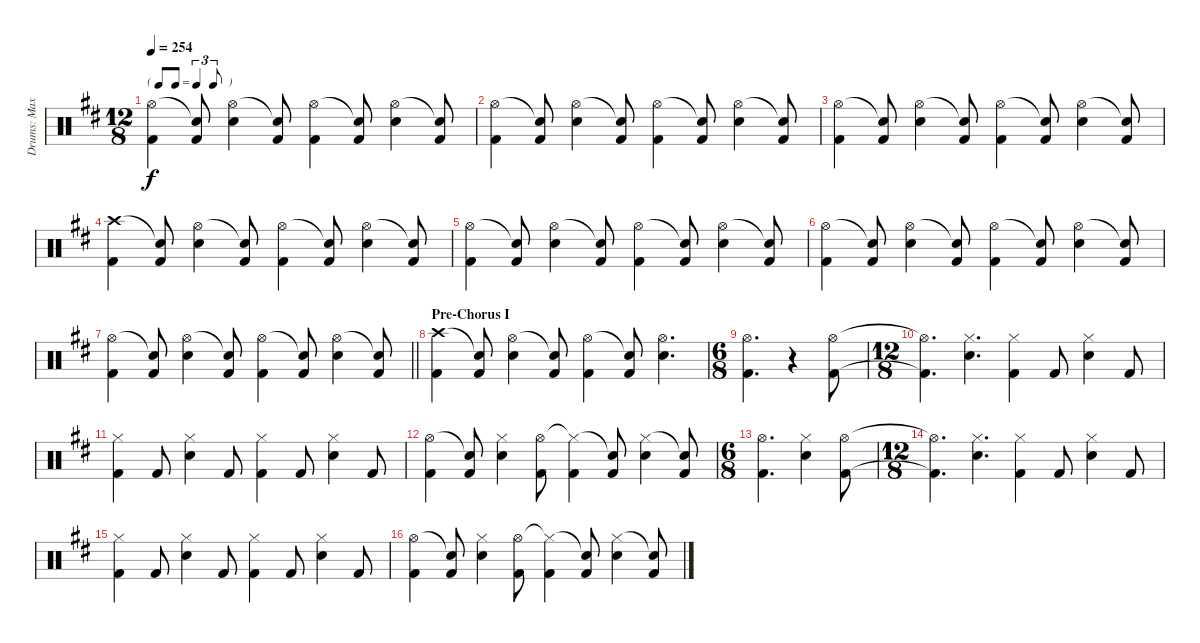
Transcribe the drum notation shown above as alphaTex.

\track ("Drums: Max" "Drums: Max") {instrument percussion}
\staff {score}
\articulation defaults
\ts (12 8)
\tf triplet8th
\tempo 254
\clef neutral
\ks d
("Hi-Hat (open)" "Kick (hit) 2").4{dy f} ("Snare (hit)"{t} "Kick (hit) 2").8 ("Hi-Hat (open)" "Electric Snare (hit)").4 ("Snare (hit)"{t} "Kick (hit) 2").8 ("Hi-Hat (open)" "Kick (hit) 2").4 ("Snare (hit)"{t} "Kick (hit) 2").8 ("Hi-Hat (open)" "Electric Snare (hit)").4 ("Snare (hit)"{t} "Kick (hit) 2").8 |
("Hi-Hat (open)" "Kick (hit) 2").4 ("Snare (hit)"{t} "Kick (hit) 2").8 ("Hi-Hat (open)" "Electric Snare (hit)").4 ("Snare (hit)"{t} "Kick (hit) 2").8 ("Hi-Hat (open)" "Kick (hit) 2").4 ("Snare (hit)"{t} "Kick (hit) 2").8 ("Hi-Hat (open)" "Electric Snare (hit)").4 ("Snare (hit)"{t} "Kick (hit) 2").8 |
("Hi-Hat (open)" "Kick (hit) 2").4 ("Snare (hit)"{t} "Kick (hit) 2").8 ("Hi-Hat (open)" "Electric Snare (hit)").4 ("Snare (hit)"{t} "Kick (hit) 2").8 ("Hi-Hat (open)" "Kick (hit) 2").4 ("Snare (hit)"{t} "Kick (hit) 2").8 ("Hi-Hat (open)" "Electric Snare (hit)").4 ("Snare (hit)"{t} "Kick (hit) 2").8 |
("Crash high (hit)" "Kick (hit) 2").4 ("Snare (hit)"{t} "Kick (hit) 2").8 ("Hi-Hat (open)" "Electric Snare (hit)").4 ("Snare (hit)"{t} "Kick (hit) 2").8 ("Hi-Hat (open)" "Kick (hit) 2").4 ("Snare (hit)"{t} "Kick (hit) 2").8 ("Hi-Hat (open)" "Electric Snare (hit)").4 ("Snare (hit)"{t} "Kick (hit) 2").8 |
("Hi-Hat (open)" "Kick (hit) 2").4 ("Snare (hit)"{t} "Kick (hit) 2").8 ("Hi-Hat (open)" "Electric Snare (hit)").4 ("Snare (hit)"{t} "Kick (hit) 2").8 ("Hi-Hat (open)" "Kick (hit) 2").4 ("Snare (hit)"{t} "Kick (hit) 2").8 ("Hi-Hat (open)" "Electric Snare (hit)").4 ("Snare (hit)"{t} "Kick (hit) 2").8 |
("Hi-Hat (open)" "Kick (hit) 2").4 ("Snare (hit)"{t} "Kick (hit) 2").8 ("Hi-Hat (open)" "Electric Snare (hit)").4 ("Snare (hit)"{t} "Kick (hit) 2").8 ("Hi-Hat (open)" "Kick (hit) 2").4 ("Snare (hit)"{t} "Kick (hit) 2").8 ("Hi-Hat (open)" "Electric Snare (hit)").4 ("Snare (hit)"{t} "Kick (hit) 2").8 |
\barLineRight lightlight
("Hi-Hat (open)" "Kick (hit) 2").4 ("Snare (hit)"{t} "Kick (hit) 2").8 ("Hi-Hat (open)" "Electric Snare (hit)").4 ("Snare (hit)"{t} "Kick (hit) 2").8 ("Hi-Hat (open)" "Kick (hit) 2").4 ("Snare (hit)"{t} "Kick (hit) 2").8 ("Hi-Hat (open)" "Electric Snare (hit)").4 ("Snare (hit)"{t} "Kick (hit) 2").8 |
\section ("" "Pre-Chorus I")
("Crash high (hit)" "Kick (hit) 2").4 ("Snare (hit)"{t} "Kick (hit) 2").8 ("Hi-Hat (open)" "Electric Snare (hit)").4 ("Snare (hit)"{t} "Kick (hit) 2").8 ("Hi-Hat (open)" "Kick (hit) 2").4 ("Snare (hit)"{t} "Kick (hit) 2").8 ("Hi-Hat (open)" "Electric Snare (hit)").4{d} |
\ts (6 8)
("Hi-Hat (open)" "Kick (hit) 2").4{d} r.4 ("Hi-Hat (open)" "Kick (hit) 2").8 |
\ts (12 8)
("Hi-Hat (open)"{t} "Kick (hit) 2"{t}).4{d} ("Hi-Hat (closed)" "Electric Snare (hit)").4{d} ("Hi-Hat (closed)" "Kick (hit) 2").4 "Kick (hit) 2".8 ("Hi-Hat (closed)" "Electric Snare (hit)").4 "Kick (hit) 2".8 |
("Hi-Hat (closed)" "Kick (hit) 2").4 "Kick (hit) 2".8 ("Hi-Hat (closed)" "Electric Snare (hit)").4 "Kick (hit) 2".8 ("Hi-Hat (closed)" "Kick (hit) 2").4 "Kick (hit) 2".8 ("Hi-Hat (closed)" "Electric Snare (hit)").4 "Kick (hit) 2".8 |
("Hi-Hat (open)" "Kick (hit) 2").4 ("Snare (hit)"{t} "Kick (hit) 2").8 ("Hi-Hat (closed)" "Electric Snare (hit)").4 ("Hi-Hat (open)" "Kick (hit) 2").8 ("Hi-Hat (closed)"{t} "Kick (hit) 2").4 ("Snare (hit)"{t} "Kick (hit) 2").8 ("Hi-Hat (closed)" "Electric Snare (hit)").4 ("Snare (hit)"{t} "Kick (hit) 2").8 |
\ts (6 8)
("Hi-Hat (open)" "Kick (hit) 2").4{d} ("Hi-Hat (closed)" "Electric Snare (hit)").4 ("Hi-Hat (open)" "Kick (hit) 2").8 |
\ts (12 8)
("Hi-Hat (open)"{t} "Kick (hit) 2"{t}).4{d} ("Hi-Hat (closed)" "Electric Snare (hit)").4{d} ("Hi-Hat (closed)" "Kick (hit) 2").4 "Kick (hit) 2".8 ("Hi-Hat (closed)" "Electric Snare (hit)").4 "Kick (hit) 2".8 |
("Hi-Hat (closed)" "Kick (hit) 2").4 "Kick (hit) 2".8 ("Hi-Hat (closed)" "Electric Snare (hit)").4 "Kick (hit) 2".8 ("Hi-Hat (closed)" "Kick (hit) 2").4 "Kick (hit) 2".8 ("Hi-Hat (closed)" "Electric Snare (hit)").4 "Kick (hit) 2".8 |
("Hi-Hat (open)" "Kick (hit) 2").4 ("Snare (hit)"{t} "Kick (hit) 2").8 ("Hi-Hat (closed)" "Electric Snare (hit)").4 ("Hi-Hat (open)" "Kick (hit) 2").8 ("Hi-Hat (closed)"{t} "Kick (hit) 2").4 ("Snare (hit)"{t} "Kick (hit) 2").8 ("Hi-Hat (closed)" "Electric Snare (hit)").4 ("Snare (hit)"{t} "Kick (hit) 2").8
